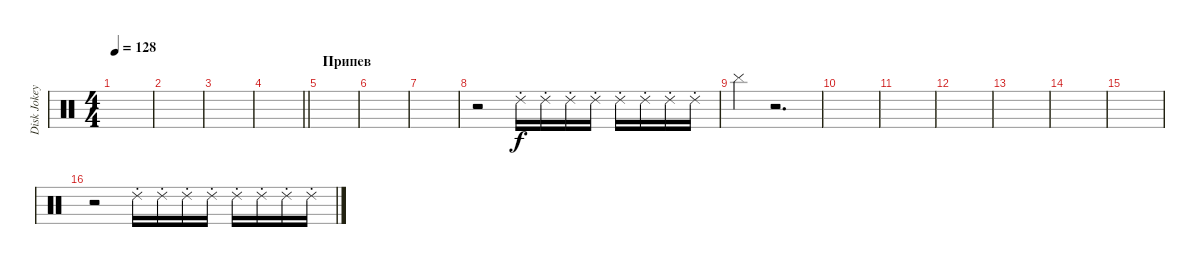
\track ("Disk Jokey" "Disk Jokey") {instrument percussion}
\staff {score}
\articulation defaults
\ts (4 4)
\tempo 128
\clef neutral
\ks c
|
|
|
\barLineRight lightlight
|
\section ("" "Припев")
|
|
|
r.2 "Ride (choke) 2".16 "Ride (choke) 2".16 "Ride (choke) 2".16 "Ride (choke) 2".16 "Ride (choke) 2".16 "Ride (choke) 2".16 "Ride (choke) 2".16 "Ride (choke) 2".16 |
"Cymbal (hit)".4 r.2{d} |
|
|
|
|
|
|
r.2 "Ride (choke) 2".16 "Ride (choke) 2".16 "Ride (choke) 2".16 "Ride (choke) 2".16 "Ride (choke) 2".16 "Ride (choke) 2".16 "Ride (choke) 2".16 "Ride (choke) 2".16
